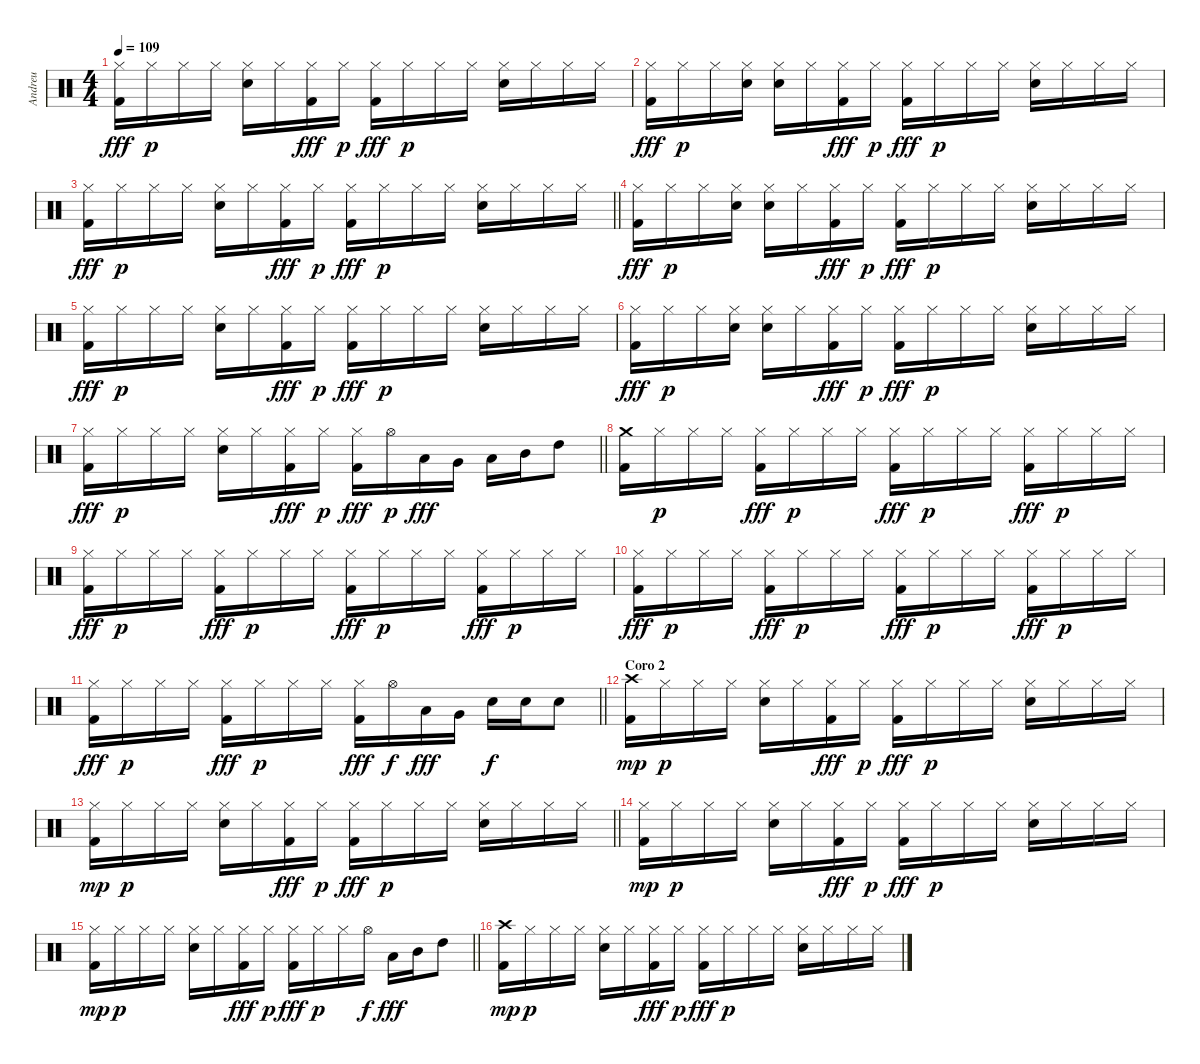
\track ("Andreu" "Andreu") {instrument percussion}
\staff {score}
\articulation defaults
\ts (4 4)
\tempo 109
\clef neutral
\ks c
("Hi-Hat (closed)" "Kick (hit) 2").16{dy fff} "Hi-Hat (closed)".16{dy p} "Hi-Hat (closed)".16 "Hi-Hat (closed)".16 ("Hi-Hat (closed)" "Snare (hit) 2").16 "Hi-Hat (closed)".16 ("Hi-Hat (closed)" "Kick (hit) 2").16{dy fff} "Hi-Hat (closed)".16{dy p} ("Hi-Hat (closed)" "Kick (hit) 2").16{dy fff} "Hi-Hat (closed)".16{dy p} "Hi-Hat (closed)".16 "Hi-Hat (closed)".16 ("Hi-Hat (closed)" "Snare (hit) 2").16 "Hi-Hat (closed)".16 "Hi-Hat (closed)".16 "Hi-Hat (closed)".16 |
("Hi-Hat (closed)" "Kick (hit) 2").16{dy fff} "Hi-Hat (closed)".16{dy p} "Hi-Hat (closed)".16 ("Hi-Hat (closed)" "Snare (hit) 2").16 ("Hi-Hat (closed)" "Snare (hit) 2").16 "Hi-Hat (closed)".16 ("Hi-Hat (closed)" "Kick (hit) 2").16{dy fff} "Hi-Hat (closed)".16{dy p} ("Hi-Hat (closed)" "Kick (hit) 2").16{dy fff} "Hi-Hat (closed)".16{dy p} "Hi-Hat (closed)".16 "Hi-Hat (closed)".16 ("Hi-Hat (closed)" "Snare (hit) 2").16 "Hi-Hat (closed)".16 "Hi-Hat (closed)".16 "Hi-Hat (closed)".16 |
\barLineRight lightlight
("Hi-Hat (closed)" "Kick (hit) 2").16{dy fff} "Hi-Hat (closed)".16{dy p} "Hi-Hat (closed)".16 "Hi-Hat (closed)".16 ("Hi-Hat (closed)" "Snare (hit) 2").16 "Hi-Hat (closed)".16 ("Hi-Hat (closed)" "Kick (hit) 2").16{dy fff} "Hi-Hat (closed)".16{dy p} ("Hi-Hat (closed)" "Kick (hit) 2").16{dy fff} "Hi-Hat (closed)".16{dy p} "Hi-Hat (closed)".16 "Hi-Hat (closed)".16 ("Hi-Hat (closed)" "Snare (hit) 2").16 "Hi-Hat (closed)".16 "Hi-Hat (closed)".16 "Hi-Hat (closed)".16 |
("Hi-Hat (closed)" "Kick (hit) 2").16{dy fff} "Hi-Hat (closed)".16{dy p} "Hi-Hat (closed)".16 ("Hi-Hat (closed)" "Snare (hit) 2").16 ("Hi-Hat (closed)" "Snare (hit) 2").16 "Hi-Hat (closed)".16 ("Hi-Hat (closed)" "Kick (hit) 2").16{dy fff} "Hi-Hat (closed)".16{dy p} ("Hi-Hat (closed)" "Kick (hit) 2").16{dy fff} "Hi-Hat (closed)".16{dy p} "Hi-Hat (closed)".16 "Hi-Hat (closed)".16 ("Hi-Hat (closed)" "Snare (hit) 2").16 "Hi-Hat (closed)".16 "Hi-Hat (closed)".16 "Hi-Hat (closed)".16 |
("Hi-Hat (closed)" "Kick (hit) 2").16{dy fff} "Hi-Hat (closed)".16{dy p} "Hi-Hat (closed)".16 "Hi-Hat (closed)".16 ("Hi-Hat (closed)" "Snare (hit) 2").16 "Hi-Hat (closed)".16 ("Hi-Hat (closed)" "Kick (hit) 2").16{dy fff} "Hi-Hat (closed)".16{dy p} ("Hi-Hat (closed)" "Kick (hit) 2").16{dy fff} "Hi-Hat (closed)".16{dy p} "Hi-Hat (closed)".16 "Hi-Hat (closed)".16 ("Hi-Hat (closed)" "Snare (hit) 2").16 "Hi-Hat (closed)".16 "Hi-Hat (closed)".16 "Hi-Hat (closed)".16 |
("Hi-Hat (closed)" "Kick (hit) 2").16{dy fff} "Hi-Hat (closed)".16{dy p} "Hi-Hat (closed)".16 ("Hi-Hat (closed)" "Snare (hit) 2").16 ("Hi-Hat (closed)" "Snare (hit) 2").16 "Hi-Hat (closed)".16 ("Hi-Hat (closed)" "Kick (hit) 2").16{dy fff} "Hi-Hat (closed)".16{dy p} ("Hi-Hat (closed)" "Kick (hit) 2").16{dy fff} "Hi-Hat (closed)".16{dy p} "Hi-Hat (closed)".16 "Hi-Hat (closed)".16 ("Hi-Hat (closed)" "Snare (hit) 2").16 "Hi-Hat (closed)".16 "Hi-Hat (closed)".16 "Hi-Hat (closed)".16 |
\barLineRight lightlight
("Hi-Hat (closed)" "Kick (hit) 2").16{dy fff} "Hi-Hat (closed)".16{dy p} "Hi-Hat (closed)".16 "Hi-Hat (closed)".16 ("Hi-Hat (closed)" "Snare (hit) 2").16 "Hi-Hat (closed)".16 ("Hi-Hat (closed)" "Kick (hit) 2").16{dy fff} "Hi-Hat (closed)".16{dy p} ("Hi-Hat (closed)" "Kick (hit) 2").16{dy fff} "Hi-Hat (open)".16{dy p} "Low Floor Tom (hit)".16{dy fff} "Very Low Tom (hit)".16 "Low Tom (hit)".16 "Mid Tom (hit)".16 "High Tom (hit)".8 |
("Crash medium (hit)" "Kick (hit) 2").16 "Hi-Hat (closed)".16{dy p} "Hi-Hat (closed)".16 "Hi-Hat (closed)".16 ("Hi-Hat (closed)" "Kick (hit) 2").16{dy fff} "Hi-Hat (closed)".16{dy p} "Hi-Hat (closed)".16 "Hi-Hat (closed)".16 ("Hi-Hat (closed)" "Kick (hit) 2").16{dy fff} "Hi-Hat (closed)".16{dy p} "Hi-Hat (closed)".16 "Hi-Hat (closed)".16 ("Hi-Hat (closed)" "Kick (hit) 2").16{dy fff} "Hi-Hat (closed)".16{dy p} "Hi-Hat (closed)".16 "Hi-Hat (closed)".16 |
("Hi-Hat (closed)" "Kick (hit) 2").16{dy fff} "Hi-Hat (closed)".16{dy p} "Hi-Hat (closed)".16 "Hi-Hat (closed)".16 ("Hi-Hat (closed)" "Kick (hit) 2").16{dy fff} "Hi-Hat (closed)".16{dy p} "Hi-Hat (closed)".16 "Hi-Hat (closed)".16 ("Hi-Hat (closed)" "Kick (hit) 2").16{dy fff} "Hi-Hat (closed)".16{dy p} "Hi-Hat (closed)".16 "Hi-Hat (closed)".16 ("Hi-Hat (closed)" "Kick (hit) 2").16{dy fff} "Hi-Hat (closed)".16{dy p} "Hi-Hat (closed)".16 "Hi-Hat (closed)".16 |
("Hi-Hat (closed)" "Kick (hit) 2").16{dy fff} "Hi-Hat (closed)".16{dy p} "Hi-Hat (closed)".16 "Hi-Hat (closed)".16 ("Hi-Hat (closed)" "Kick (hit) 2").16{dy fff} "Hi-Hat (closed)".16{dy p} "Hi-Hat (closed)".16 "Hi-Hat (closed)".16 ("Hi-Hat (closed)" "Kick (hit) 2").16{dy fff} "Hi-Hat (closed)".16{dy p} "Hi-Hat (closed)".16 "Hi-Hat (closed)".16 ("Hi-Hat (closed)" "Kick (hit) 2").16{dy fff} "Hi-Hat (closed)".16{dy p} "Hi-Hat (closed)".16 "Hi-Hat (closed)".16 |
\barLineRight lightlight
("Hi-Hat (closed)" "Kick (hit) 2").16{dy fff} "Hi-Hat (closed)".16{dy p} "Hi-Hat (closed)".16 "Hi-Hat (closed)".16 ("Hi-Hat (closed)" "Kick (hit) 2").16{dy fff} "Hi-Hat (closed)".16{dy p} "Hi-Hat (closed)".16 "Hi-Hat (closed)".16 ("Hi-Hat (closed)" "Kick (hit) 2").16{dy fff} "Hi-Hat (open)".16{dy f} "Low Floor Tom (hit)".16{dy fff} "Very Low Tom (hit)".16 "Snare (hit) 2".16{dy f} "Snare (hit) 2".16 "Snare (hit) 2".8 |
\section ("" "Coro 2")
("Crash high (hit)" "Kick (hit) 2").16{dy mp} "Hi-Hat (closed)".16{dy p} "Hi-Hat (closed)".16 "Hi-Hat (closed)".16 ("Hi-Hat (closed)" "Snare (hit) 2").16 "Hi-Hat (closed)".16 ("Hi-Hat (closed)" "Kick (hit) 2").16{dy fff} "Hi-Hat (closed)".16{dy p} ("Hi-Hat (closed)" "Kick (hit) 2").16{dy fff} "Hi-Hat (closed)".16{dy p} "Hi-Hat (closed)".16 "Hi-Hat (closed)".16 ("Hi-Hat (closed)" "Snare (hit) 2").16 "Hi-Hat (closed)".16 "Hi-Hat (closed)".16 "Hi-Hat (closed)".16 |
\barLineRight lightlight
("Hi-Hat (closed)" "Kick (hit) 2").16{dy mp} "Hi-Hat (closed)".16{dy p} "Hi-Hat (closed)".16 "Hi-Hat (closed)".16 ("Hi-Hat (closed)" "Snare (hit) 2").16 "Hi-Hat (closed)".16 ("Hi-Hat (closed)" "Kick (hit) 2").16{dy fff} "Hi-Hat (closed)".16{dy p} ("Hi-Hat (closed)" "Kick (hit) 2").16{dy fff} "Hi-Hat (closed)".16{dy p} "Hi-Hat (closed)".16 "Hi-Hat (closed)".16 ("Hi-Hat (closed)" "Snare (hit) 2").16 "Hi-Hat (closed)".16 "Hi-Hat (closed)".16 "Hi-Hat (closed)".16 |
("Hi-Hat (closed)" "Kick (hit) 2").16{dy mp} "Hi-Hat (closed)".16{dy p} "Hi-Hat (closed)".16 "Hi-Hat (closed)".16 ("Hi-Hat (closed)" "Snare (hit) 2").16 "Hi-Hat (closed)".16 ("Hi-Hat (closed)" "Kick (hit) 2").16{dy fff} "Hi-Hat (closed)".16{dy p} ("Hi-Hat (closed)" "Kick (hit) 2").16{dy fff} "Hi-Hat (closed)".16{dy p} "Hi-Hat (closed)".16 "Hi-Hat (closed)".16 ("Hi-Hat (closed)" "Snare (hit) 2").16 "Hi-Hat (closed)".16 "Hi-Hat (closed)".16 "Hi-Hat (closed)".16 |
\barLineRight lightlight
("Hi-Hat (closed)" "Kick (hit) 2").16{dy mp} "Hi-Hat (closed)".16{dy p} "Hi-Hat (closed)".16 "Hi-Hat (closed)".16 ("Hi-Hat (closed)" "Snare (hit) 2").16 "Hi-Hat (closed)".16 ("Hi-Hat (closed)" "Kick (hit) 2").16{dy fff} "Hi-Hat (closed)".16{dy p} ("Hi-Hat (closed)" "Kick (hit) 2").16{dy fff} "Hi-Hat (closed)".16{dy p} "Hi-Hat (closed)".16 "Hi-Hat (open)".16{dy f} "Low Tom (hit)".16{dy fff} "Mid Tom (hit)".16 "High Tom (hit)".8 |
("Crash high (hit)" "Kick (hit) 2").16{dy mp} "Hi-Hat (closed)".16{dy p} "Hi-Hat (closed)".16 "Hi-Hat (closed)".16 ("Hi-Hat (closed)" "Snare (hit) 2").16 "Hi-Hat (closed)".16 ("Hi-Hat (closed)" "Kick (hit) 2").16{dy fff} "Hi-Hat (closed)".16{dy p} ("Hi-Hat (closed)" "Kick (hit) 2").16{dy fff} "Hi-Hat (closed)".16{dy p} "Hi-Hat (closed)".16 "Hi-Hat (closed)".16 ("Hi-Hat (closed)" "Snare (hit) 2").16 "Hi-Hat (closed)".16 "Hi-Hat (closed)".16 "Hi-Hat (closed)".16
